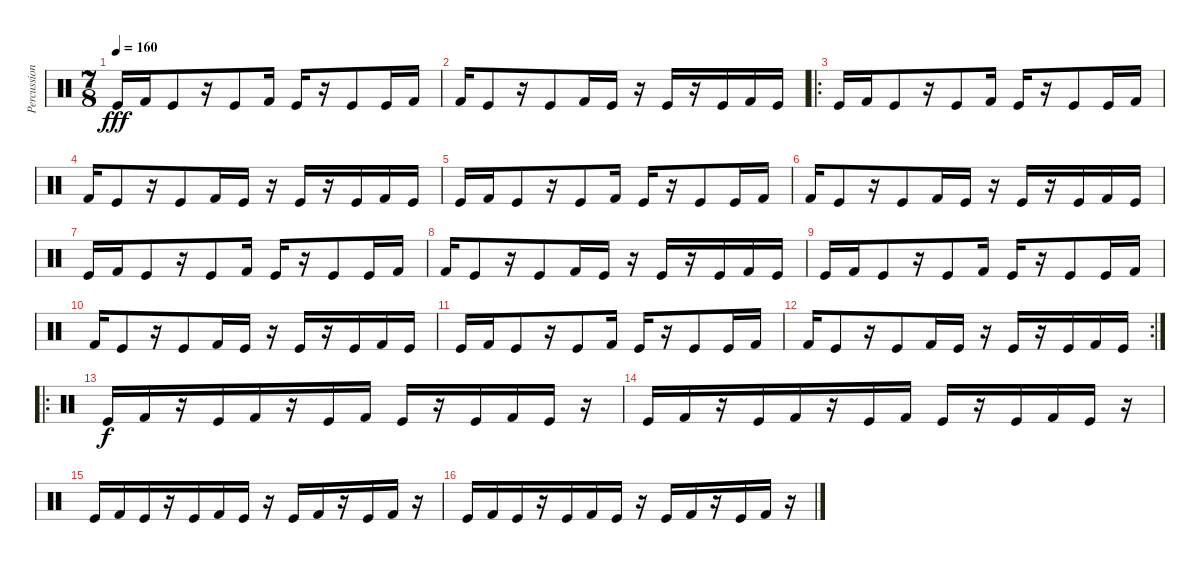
\track ("Percussion" "Percussion") {instrument percussion}
\staff {score}
\articulation defaults
\ts (7 8)
\tempo 160
\clef neutral
\ks c "Kick (hit)".16{dy fff} "Kick (hit) 2".16 "Kick (hit)".8
r.16 "Kick (hit)".8 "Kick (hit) 2".16 "Kick (hit)".16 r.16 "Kick (hit)".8 "Kick (hit)".16 "Kick (hit) 2".16 |
"Kick (hit) 2".16 "Kick (hit)".8 r.16 "Kick (hit)".8 "Kick (hit) 2".16 "Kick (hit)".16 r.16 "Kick (hit)".16 r.16 "Kick (hit)".16 "Kick (hit) 2".16 "Kick (hit)".16 |
\ro "Kick (hit)".16 "Kick (hit) 2".16 "Kick (hit)".8
r.16 "Kick (hit)".8 "Kick (hit) 2".16 "Kick (hit)".16 r.16 "Kick (hit)".8 "Kick (hit)".16 "Kick (hit) 2".16 |
"Kick (hit) 2".16 "Kick (hit)".8 r.16 "Kick (hit)".8 "Kick (hit) 2".16 "Kick (hit)".16 r.16 "Kick (hit)".16 r.16 "Kick (hit)".16 "Kick (hit) 2".16 "Kick (hit)".16 |
"Kick (hit)".16 "Kick (hit) 2".16 "Kick (hit)".8 r.16 "Kick (hit)".8 "Kick (hit) 2".16 "Kick (hit)".16 r.16 "Kick (hit)".8 "Kick (hit)".16 "Kick (hit) 2".16 |
"Kick (hit) 2".16 "Kick (hit)".8 r.16 "Kick (hit)".8 "Kick (hit) 2".16 "Kick (hit)".16 r.16 "Kick (hit)".16 r.16 "Kick (hit)".16 "Kick (hit) 2".16 "Kick (hit)".16 |
"Kick (hit)".16 "Kick (hit) 2".16 "Kick (hit)".8 r.16 "Kick (hit)".8 "Kick (hit) 2".16 "Kick (hit)".16 r.16 "Kick (hit)".8 "Kick (hit)".16 "Kick (hit) 2".16 |
"Kick (hit) 2".16 "Kick (hit)".8 r.16 "Kick (hit)".8 "Kick (hit) 2".16 "Kick (hit)".16 r.16 "Kick (hit)".16 r.16 "Kick (hit)".16 "Kick (hit) 2".16 "Kick (hit)".16 |
"Kick (hit)".16 "Kick (hit) 2".16 "Kick (hit)".8 r.16 "Kick (hit)".8 "Kick (hit) 2".16 "Kick (hit)".16 r.16 "Kick (hit)".8 "Kick (hit)".16 "Kick (hit) 2".16 |
"Kick (hit) 2".16 "Kick (hit)".8 r.16 "Kick (hit)".8 "Kick (hit) 2".16 "Kick (hit)".16 r.16 "Kick (hit)".16 r.16 "Kick (hit)".16 "Kick (hit) 2".16 "Kick (hit)".16 |
"Kick (hit)".16 "Kick (hit) 2".16 "Kick (hit)".8 r.16 "Kick (hit)".8 "Kick (hit) 2".16 "Kick (hit)".16 r.16 "Kick (hit)".8 "Kick (hit)".16 "Kick (hit) 2".16 |
\rc 2 "Kick (hit) 2".16 "Kick (hit)".8
r.16 "Kick (hit)".8 "Kick (hit) 2".16 "Kick (hit)".16 r.16 "Kick (hit)".16 r.16 "Kick (hit)".16 "Kick (hit) 2".16 "Kick (hit)".16 |
\ro "Kick (hit)".16{dy f} "Kick (hit) 2".16
r.16 "Kick (hit)".16 "Kick (hit) 2".16 r.16 "Kick (hit)".16 "Kick (hit) 2".16 "Kick (hit)".16 r.16 "Kick (hit)".16 "Kick (hit) 2".16 "Kick (hit)".16 r.16 |
"Kick (hit)".16 "Kick (hit) 2".16 r.16 "Kick (hit)".16 "Kick (hit) 2".16 r.16 "Kick (hit)".16 "Kick (hit) 2".16 "Kick (hit)".16 r.16 "Kick (hit)".16 "Kick (hit) 2".16 "Kick (hit)".16 r.16 |
"Kick (hit)".16 "Kick (hit) 2".16 "Kick (hit)".16 r.16 "Kick (hit)".16 "Kick (hit) 2".16 "Kick (hit)".16 r.16 "Kick (hit)".16 "Kick (hit) 2".16 r.16 "Kick (hit)".16 "Kick (hit) 2".16 r.16 |
"Kick (hit)".16 "Kick (hit) 2".16 "Kick (hit)".16 r.16 "Kick (hit)".16 "Kick (hit) 2".16 "Kick (hit)".16 r.16 "Kick (hit)".16 "Kick (hit) 2".16 r.16 "Kick (hit)".16 "Kick (hit) 2".16 r.16
